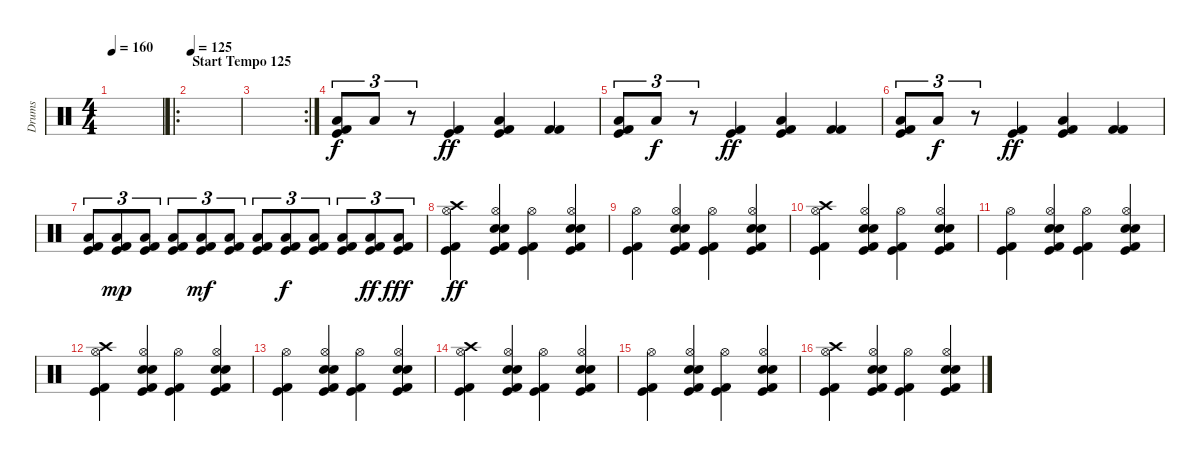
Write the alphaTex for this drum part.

\track ("Drums" "Drums") {instrument percussion}
\staff {score}
\articulation defaults
\ts (4 4)
\tempo 160
\clef neutral
\ks c
|
\ro
\section ("" "Start Tempo 125")
\tempo 125
|
\rc 2
|
("Low Floor Tom (hit)" "Kick (hit) 2" "Kick (hit)").8{tu (3 2)} "Low Floor Tom (hit)".8{tu (3 2) dy f} r.8{tu (3 2)} ("Kick (hit) 2" "Kick (hit)").4{dy ff} ("Low Floor Tom (hit)" "Kick (hit) 2" "Kick (hit)").4 ("Kick (hit) 2" "Kick (hit) 2").4 |
("Low Floor Tom (hit)" "Kick (hit) 2" "Kick (hit)").8{tu (3 2)} "Low Floor Tom (hit)".8{tu (3 2) dy f} r.8{tu (3 2)} ("Kick (hit) 2" "Kick (hit)").4{dy ff} ("Low Floor Tom (hit)" "Kick (hit) 2" "Kick (hit)").4 ("Kick (hit) 2" "Kick (hit) 2").4 |
("Low Floor Tom (hit)" "Kick (hit) 2" "Kick (hit)").8{tu (3 2)} "Low Floor Tom (hit)".8{tu (3 2) dy f} r.8{tu (3 2)} ("Kick (hit) 2" "Kick (hit)").4{dy ff} ("Low Floor Tom (hit)" "Kick (hit) 2" "Kick (hit)").4 ("Kick (hit) 2" "Kick (hit) 2").4 |
("Low Floor Tom (hit)" "Kick (hit) 2" "Kick (hit)").8{tu (3 2)} ("Low Floor Tom (hit)" "Kick (hit) 2" "Kick (hit)").8{tu (3 2) dy mp} ("Low Floor Tom (hit)" "Kick (hit) 2" "Kick (hit)").8{tu (3 2)} ("Low Floor Tom (hit)" "Kick (hit) 2" "Kick (hit)").8{tu (3 2)} ("Low Floor Tom (hit)" "Kick (hit) 2" "Kick (hit)").8{tu (3 2) dy mf} ("Low Floor Tom (hit)" "Kick (hit) 2" "Kick (hit)").8{tu (3 2)} ("Low Floor Tom (hit)" "Kick (hit) 2" "Kick (hit)").8{tu (3 2)} ("Low Floor Tom (hit)" "Kick (hit) 2" "Kick (hit)").8{tu (3 2) dy f} ("Low Floor Tom (hit)" "Kick (hit) 2" "Kick (hit)").8{tu (3 2)} ("Low Floor Tom (hit)" "Kick (hit) 2" "Kick (hit)").8{tu (3 2)} ("Low Floor Tom (hit)" "Kick (hit) 2" "Kick (hit)").8{tu (3 2) dy ff} ("Low Floor Tom (hit)" "Kick (hit) 2" "Kick (hit)").8{tu (3 2) dy fff} |
("Hi-Hat (open)" "Crash high (hit)" "Kick (hit) 2" "Kick (hit)").4{dy ff} ("Hi-Hat (open)" "Snare (hit) 2" "Electric Snare (hit)" "Kick (hit) 2" "Kick (hit)").4 ("Hi-Hat (open)" "Kick (hit) 2" "Kick (hit)").4 ("Hi-Hat (open)" "Snare (hit) 2" "Electric Snare (hit)" "Kick (hit) 2" "Kick (hit)").4 |
("Hi-Hat (open)" "Kick (hit) 2" "Kick (hit)").4 ("Hi-Hat (open)" "Snare (hit) 2" "Electric Snare (hit)" "Kick (hit) 2" "Kick (hit)").4 ("Hi-Hat (open)" "Kick (hit) 2" "Kick (hit)").4 ("Hi-Hat (open)" "Snare (hit) 2" "Electric Snare (hit)" "Kick (hit) 2" "Kick (hit)").4 |
("Hi-Hat (open)" "Crash high (hit)" "Kick (hit) 2" "Kick (hit)").4 ("Hi-Hat (open)" "Snare (hit) 2" "Electric Snare (hit)" "Kick (hit) 2" "Kick (hit)").4 ("Hi-Hat (open)" "Kick (hit) 2" "Kick (hit)").4 ("Hi-Hat (open)" "Snare (hit) 2" "Electric Snare (hit)" "Kick (hit) 2" "Kick (hit)").4 |
("Hi-Hat (open)" "Kick (hit) 2" "Kick (hit)").4 ("Hi-Hat (open)" "Snare (hit) 2" "Electric Snare (hit)" "Kick (hit) 2" "Kick (hit)").4 ("Hi-Hat (open)" "Kick (hit) 2" "Kick (hit)").4 ("Hi-Hat (open)" "Snare (hit) 2" "Electric Snare (hit)" "Kick (hit) 2" "Kick (hit)").4 |
("Hi-Hat (open)" "Crash high (hit)" "Kick (hit) 2" "Kick (hit)").4 ("Hi-Hat (open)" "Snare (hit) 2" "Electric Snare (hit)" "Kick (hit) 2" "Kick (hit)").4 ("Hi-Hat (open)" "Kick (hit) 2" "Kick (hit)").4 ("Hi-Hat (open)" "Snare (hit) 2" "Electric Snare (hit)" "Kick (hit) 2" "Kick (hit)").4 |
("Hi-Hat (open)" "Kick (hit) 2" "Kick (hit)").4 ("Hi-Hat (open)" "Snare (hit) 2" "Electric Snare (hit)" "Kick (hit) 2" "Kick (hit)").4 ("Hi-Hat (open)" "Kick (hit) 2" "Kick (hit)").4 ("Hi-Hat (open)" "Snare (hit) 2" "Electric Snare (hit)" "Kick (hit) 2" "Kick (hit)").4 |
("Hi-Hat (open)" "Crash high (hit)" "Kick (hit) 2" "Kick (hit)").4 ("Hi-Hat (open)" "Snare (hit) 2" "Electric Snare (hit)" "Kick (hit) 2" "Kick (hit)").4 ("Hi-Hat (open)" "Kick (hit) 2" "Kick (hit)").4 ("Hi-Hat (open)" "Snare (hit) 2" "Electric Snare (hit)" "Kick (hit) 2" "Kick (hit)").4 |
("Hi-Hat (open)" "Kick (hit) 2" "Kick (hit)").4 ("Hi-Hat (open)" "Snare (hit) 2" "Electric Snare (hit)" "Kick (hit) 2" "Kick (hit)").4 ("Hi-Hat (open)" "Kick (hit) 2" "Kick (hit)").4 ("Hi-Hat (open)" "Snare (hit) 2" "Electric Snare (hit)" "Kick (hit) 2" "Kick (hit)").4 |
("Hi-Hat (open)" "Crash high (hit)" "Kick (hit) 2" "Kick (hit)").4 ("Hi-Hat (open)" "Snare (hit) 2" "Electric Snare (hit)" "Kick (hit) 2" "Kick (hit)").4 ("Hi-Hat (open)" "Kick (hit) 2" "Kick (hit)").4 ("Hi-Hat (open)" "Snare (hit) 2" "Electric Snare (hit)" "Kick (hit) 2" "Kick (hit)").4
